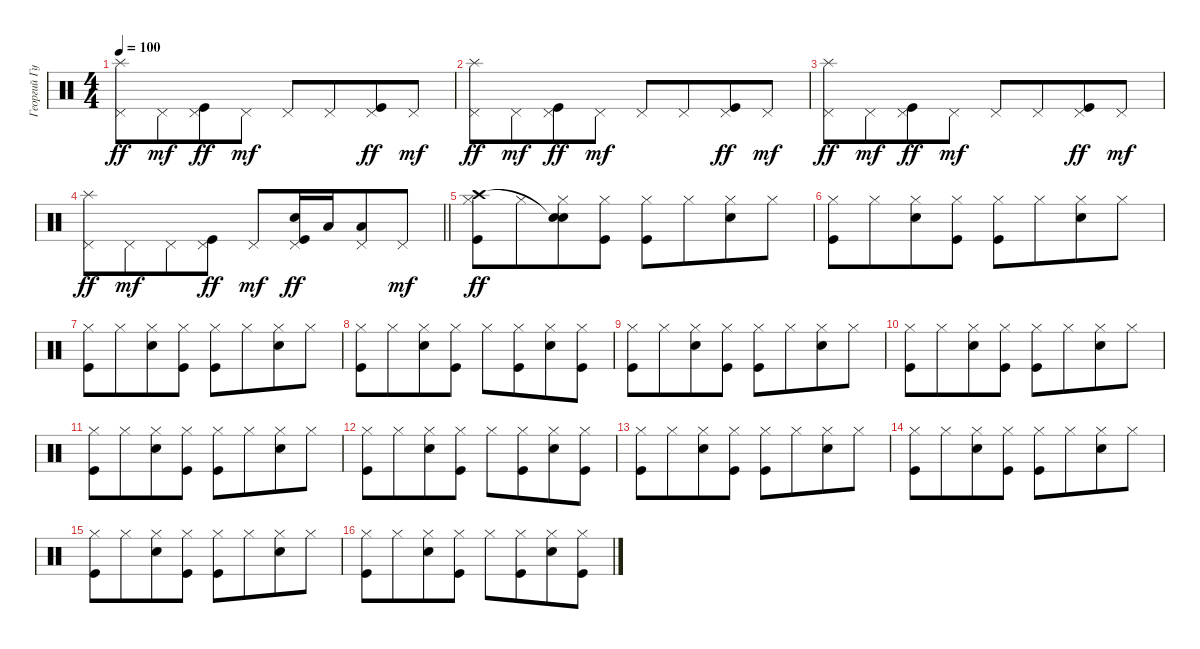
\track ("Георгий Гурьянов" "Георгий Гу") {instrument percussion}
\staff {score}
\articulation defaults
\ts (4 4)
\tempo 100
\clef neutral
\ks c
("Pedal Hi-Hat (hit)" "Splash (hit)").8{dy ff} "Pedal Hi-Hat (hit)".8{dy mf beam merge} ("Pedal Hi-Hat (hit)" "Kick (hit)").8{dy ff} "Pedal Hi-Hat (hit)".8{dy mf} "Pedal Hi-Hat (hit)".8 "Pedal Hi-Hat (hit)".8{beam merge} ("Pedal Hi-Hat (hit)" "Kick (hit)").8{dy ff} "Pedal Hi-Hat (hit)".8{dy mf} |
("Pedal Hi-Hat (hit)" "Splash (hit)").8{dy ff} "Pedal Hi-Hat (hit)".8{dy mf beam merge} ("Pedal Hi-Hat (hit)" "Kick (hit)").8{dy ff} "Pedal Hi-Hat (hit)".8{dy mf} "Pedal Hi-Hat (hit)".8 "Pedal Hi-Hat (hit)".8{beam merge} ("Pedal Hi-Hat (hit)" "Kick (hit)").8{dy ff} "Pedal Hi-Hat (hit)".8{dy mf} |
("Pedal Hi-Hat (hit)" "Splash (hit)").8{dy ff} "Pedal Hi-Hat (hit)".8{dy mf beam merge} ("Pedal Hi-Hat (hit)" "Kick (hit)").8{dy ff} "Pedal Hi-Hat (hit)".8{dy mf} "Pedal Hi-Hat (hit)".8 "Pedal Hi-Hat (hit)".8{beam merge} ("Pedal Hi-Hat (hit)" "Kick (hit)").8{dy ff} "Pedal Hi-Hat (hit)".8{dy mf} |
\barLineRight lightlight
("Pedal Hi-Hat (hit)" "Splash (hit)").8{dy ff} "Pedal Hi-Hat (hit)".8{dy mf beam merge} "Pedal Hi-Hat (hit)".8 ("Pedal Hi-Hat (hit)" "Kick (hit)").8{dy ff} "Pedal Hi-Hat (hit)".8{dy mf beam merge} ("Pedal Hi-Hat (hit)" "Snare (hit) 2" "Kick (hit)").16{dy ff beam merge} "Low Tom (hit)".16{beam merge} ("Pedal Hi-Hat (hit)" "Low Tom (hit)").8 "Pedal Hi-Hat (hit)".8{dy mf} |
("Hi-Hat (closed)" "Crash high (hit)" "Kick (hit)").8{dy ff} "Hi-Hat (closed)".8{beam merge} ("Hi-Hat (closed)" "Snare (hit)"{t} "Snare (hit) 2").8 ("Hi-Hat (closed)" "Kick (hit)").8 ("Hi-Hat (closed)" "Kick (hit)").8 "Hi-Hat (closed)".8{beam merge} ("Hi-Hat (closed)" "Snare (hit) 2").8 "Hi-Hat (closed)".8 |
("Hi-Hat (closed)" "Kick (hit)").8 "Hi-Hat (closed)".8{beam merge} ("Hi-Hat (closed)" "Snare (hit) 2").8 ("Hi-Hat (closed)" "Kick (hit)").8 ("Hi-Hat (closed)" "Kick (hit)").8 "Hi-Hat (closed)".8{beam merge} ("Hi-Hat (closed)" "Snare (hit) 2").8 "Hi-Hat (closed)".8 |
("Hi-Hat (closed)" "Kick (hit)").8 "Hi-Hat (closed)".8{beam merge} ("Hi-Hat (closed)" "Snare (hit) 2").8 ("Hi-Hat (closed)" "Kick (hit)").8 ("Hi-Hat (closed)" "Kick (hit)").8 "Hi-Hat (closed)".8{beam merge} ("Hi-Hat (closed)" "Snare (hit) 2").8 "Hi-Hat (closed)".8 |
("Hi-Hat (closed)" "Kick (hit)").8 "Hi-Hat (closed)".8{beam merge} ("Hi-Hat (closed)" "Snare (hit) 2").8 ("Hi-Hat (closed)" "Kick (hit)").8 "Hi-Hat (closed)".8 ("Hi-Hat (closed)" "Kick (hit)").8{beam merge} ("Hi-Hat (closed)" "Snare (hit) 2").8 ("Hi-Hat (closed)" "Kick (hit)").8 |
("Hi-Hat (closed)" "Kick (hit)").8 "Hi-Hat (closed)".8{beam merge} ("Hi-Hat (closed)" "Snare (hit) 2").8 ("Hi-Hat (closed)" "Kick (hit)").8 ("Hi-Hat (closed)" "Kick (hit)").8 "Hi-Hat (closed)".8{beam merge} ("Hi-Hat (closed)" "Snare (hit) 2").8 "Hi-Hat (closed)".8 |
("Hi-Hat (closed)" "Kick (hit)").8 "Hi-Hat (closed)".8{beam merge} ("Hi-Hat (closed)" "Snare (hit) 2").8 ("Hi-Hat (closed)" "Kick (hit)").8 ("Hi-Hat (closed)" "Kick (hit)").8 "Hi-Hat (closed)".8{beam merge} ("Hi-Hat (closed)" "Snare (hit) 2").8 "Hi-Hat (closed)".8 |
("Hi-Hat (closed)" "Kick (hit)").8 "Hi-Hat (closed)".8{beam merge} ("Hi-Hat (closed)" "Snare (hit) 2").8 ("Hi-Hat (closed)" "Kick (hit)").8 ("Hi-Hat (closed)" "Kick (hit)").8 "Hi-Hat (closed)".8{beam merge} ("Hi-Hat (closed)" "Snare (hit) 2").8 "Hi-Hat (closed)".8 |
("Hi-Hat (closed)" "Kick (hit)").8 "Hi-Hat (closed)".8{beam merge} ("Hi-Hat (closed)" "Snare (hit) 2").8 ("Hi-Hat (closed)" "Kick (hit)").8 "Hi-Hat (closed)".8 ("Hi-Hat (closed)" "Kick (hit)").8{beam merge} ("Hi-Hat (closed)" "Snare (hit) 2").8 ("Hi-Hat (closed)" "Kick (hit)").8 |
("Hi-Hat (closed)" "Kick (hit)").8 "Hi-Hat (closed)".8{beam merge} ("Hi-Hat (closed)" "Snare (hit) 2").8 ("Hi-Hat (closed)" "Kick (hit)").8 ("Hi-Hat (closed)" "Kick (hit)").8 "Hi-Hat (closed)".8{beam merge} ("Hi-Hat (closed)" "Snare (hit) 2").8 "Hi-Hat (closed)".8 |
("Hi-Hat (closed)" "Kick (hit)").8 "Hi-Hat (closed)".8{beam merge} ("Hi-Hat (closed)" "Snare (hit) 2").8 ("Hi-Hat (closed)" "Kick (hit)").8 ("Hi-Hat (closed)" "Kick (hit)").8 "Hi-Hat (closed)".8{beam merge} ("Hi-Hat (closed)" "Snare (hit) 2").8 "Hi-Hat (closed)".8 |
("Hi-Hat (closed)" "Kick (hit)").8 "Hi-Hat (closed)".8{beam merge} ("Hi-Hat (closed)" "Snare (hit) 2").8 ("Hi-Hat (closed)" "Kick (hit)").8 ("Hi-Hat (closed)" "Kick (hit)").8 "Hi-Hat (closed)".8{beam merge} ("Hi-Hat (closed)" "Snare (hit) 2").8 "Hi-Hat (closed)".8 |
("Hi-Hat (closed)" "Kick (hit)").8 "Hi-Hat (closed)".8{beam merge} ("Hi-Hat (closed)" "Snare (hit) 2").8 ("Hi-Hat (closed)" "Kick (hit)").8 "Hi-Hat (closed)".8 ("Hi-Hat (closed)" "Kick (hit)").8{beam merge} ("Hi-Hat (closed)" "Snare (hit) 2").8 ("Hi-Hat (closed)" "Kick (hit)").8
